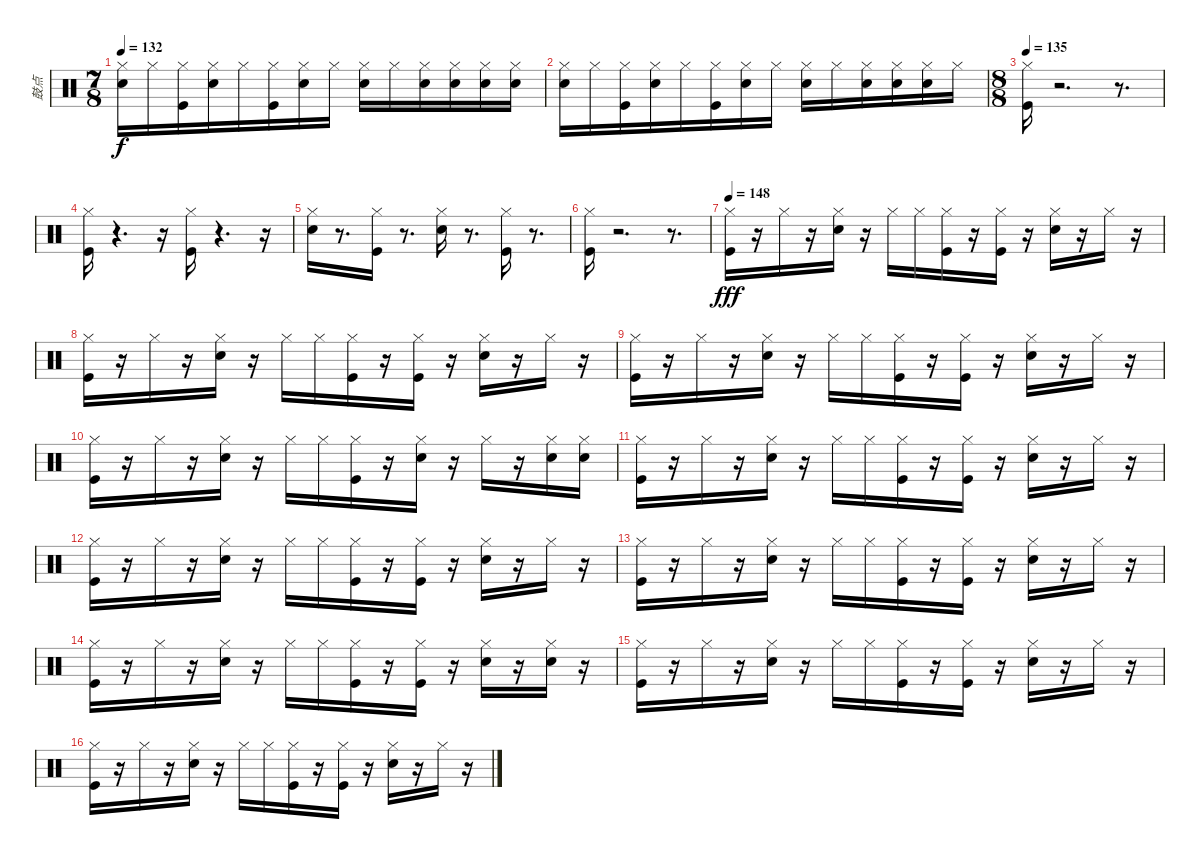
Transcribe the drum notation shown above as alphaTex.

\track ("鼓点" "鼓点") {instrument percussion}
\staff {score}
\articulation defaults
\ts (7 8)
\tempo 132
\clef neutral
\ks c
("Snare (hit) 2" "Hi-Hat (closed)").16{dy f} "Hi-Hat (closed)".16 ("Kick (hit)" "Hi-Hat (closed)").16 ("Snare (hit) 2" "Hi-Hat (closed)").16 "Hi-Hat (closed)".16 ("Kick (hit)" "Hi-Hat (closed)").16 ("Snare (hit) 2" "Hi-Hat (closed)").16 "Hi-Hat (closed)".16 ("Snare (hit) 2" "Hi-Hat (closed)").16 "Hi-Hat (closed)".16 ("Snare (hit) 2" "Hi-Hat (closed)").16 ("Snare (hit) 2" "Hi-Hat (closed)").16 ("Snare (hit) 2" "Hi-Hat (closed)").16 ("Snare (hit) 2" "Hi-Hat (closed)").16 |
("Snare (hit) 2" "Hi-Hat (closed)").16 "Hi-Hat (closed)".16 ("Kick (hit)" "Hi-Hat (closed)").16 ("Snare (hit) 2" "Hi-Hat (closed)").16 "Hi-Hat (closed)".16 ("Kick (hit)" "Hi-Hat (closed)").16 ("Snare (hit) 2" "Hi-Hat (closed)").16 "Hi-Hat (closed)".16 ("Snare (hit) 2" "Hi-Hat (closed)").16 "Hi-Hat (closed)".16 ("Snare (hit) 2" "Hi-Hat (closed)").16 ("Snare (hit) 2" "Hi-Hat (closed)").16 ("Snare (hit) 2" "Hi-Hat (closed)").16 "Hi-Hat (closed)".16 |
\ts (8 8)
\tempo 135
("Hi-Hat (closed)" "Kick (hit)").16 r.2{d} r.8{d} |
("Hi-Hat (closed)" "Kick (hit)").16 r.4{d} r.16 ("Hi-Hat (closed)" "Kick (hit)").16 r.4{d} r.16 |
("Hi-Hat (closed)" "Snare (hit) 2").16 r.8{d} ("Hi-Hat (closed)" "Kick (hit)").16 r.8{d} ("Hi-Hat (closed)" "Snare (hit) 2").16 r.8{d} ("Hi-Hat (closed)" "Kick (hit)").16 r.8{d} |
("Hi-Hat (closed)" "Kick (hit)").16 r.2{d} r.8{d} |
\tempo 148
("Kick (hit)" "Hi-Hat (closed)").16{dy fff} r.16 "Hi-Hat (closed)".16 r.16 ("Snare (hit) 2" "Hi-Hat (closed)").16 r.16 "Hi-Hat (closed)".16 "Hi-Hat (closed)".16 ("Kick (hit)" "Hi-Hat (closed)").16 r.16 ("Kick (hit)" "Hi-Hat (closed)").16 r.16 ("Snare (hit) 2" "Hi-Hat (closed)").16 r.16 "Hi-Hat (closed)".16 r.16 |
("Kick (hit)" "Hi-Hat (closed)").16 r.16 "Hi-Hat (closed)".16 r.16 ("Snare (hit) 2" "Hi-Hat (closed)").16 r.16 "Hi-Hat (closed)".16 "Hi-Hat (closed)".16 ("Kick (hit)" "Hi-Hat (closed)").16 r.16 ("Kick (hit)" "Hi-Hat (closed)").16 r.16 ("Snare (hit) 2" "Hi-Hat (closed)").16 r.16 "Hi-Hat (closed)".16 r.16 |
("Kick (hit)" "Hi-Hat (closed)").16 r.16 "Hi-Hat (closed)".16 r.16 ("Snare (hit) 2" "Hi-Hat (closed)").16 r.16 "Hi-Hat (closed)".16 "Hi-Hat (closed)".16 ("Kick (hit)" "Hi-Hat (closed)").16 r.16 ("Kick (hit)" "Hi-Hat (closed)").16 r.16 ("Snare (hit) 2" "Hi-Hat (closed)").16 r.16 "Hi-Hat (closed)".16 r.16 |
("Kick (hit)" "Hi-Hat (closed)").16 r.16 "Hi-Hat (closed)".16 r.16 ("Snare (hit) 2" "Hi-Hat (closed)").16 r.16 "Hi-Hat (closed)".16 "Hi-Hat (closed)".16 ("Kick (hit)" "Hi-Hat (closed)").16 r.16 ("Snare (hit) 2" "Hi-Hat (closed)").16 r.16 "Hi-Hat (closed)".16 r.16 ("Snare (hit) 2" "Hi-Hat (closed)").16 ("Snare (hit) 2" "Hi-Hat (closed)").16 |
("Kick (hit)" "Hi-Hat (closed)").16 r.16 "Hi-Hat (closed)".16 r.16 ("Snare (hit) 2" "Hi-Hat (closed)").16 r.16 "Hi-Hat (closed)".16 "Hi-Hat (closed)".16 ("Kick (hit)" "Hi-Hat (closed)").16 r.16 ("Kick (hit)" "Hi-Hat (closed)").16 r.16 ("Snare (hit) 2" "Hi-Hat (closed)").16 r.16 "Hi-Hat (closed)".16 r.16 |
("Kick (hit)" "Hi-Hat (closed)").16 r.16 "Hi-Hat (closed)".16 r.16 ("Snare (hit) 2" "Hi-Hat (closed)").16 r.16 "Hi-Hat (closed)".16 "Hi-Hat (closed)".16 ("Kick (hit)" "Hi-Hat (closed)").16 r.16 ("Kick (hit)" "Hi-Hat (closed)").16 r.16 ("Snare (hit) 2" "Hi-Hat (closed)").16 r.16 "Hi-Hat (closed)".16 r.16 |
("Kick (hit)" "Hi-Hat (closed)").16 r.16 "Hi-Hat (closed)".16 r.16 ("Snare (hit) 2" "Hi-Hat (closed)").16 r.16 "Hi-Hat (closed)".16 "Hi-Hat (closed)".16 ("Kick (hit)" "Hi-Hat (closed)").16 r.16 ("Kick (hit)" "Hi-Hat (closed)").16 r.16 ("Snare (hit) 2" "Hi-Hat (closed)").16 r.16 "Hi-Hat (closed)".16 r.16 |
("Kick (hit)" "Hi-Hat (closed)").16 r.16 "Hi-Hat (closed)".16 r.16 ("Snare (hit) 2" "Hi-Hat (closed)").16 r.16 "Hi-Hat (closed)".16 "Hi-Hat (closed)".16 ("Kick (hit)" "Hi-Hat (closed)").16 r.16 ("Kick (hit)" "Hi-Hat (closed)").16 r.16 ("Snare (hit) 2" "Hi-Hat (closed)").16 r.16 ("Snare (hit) 2" "Hi-Hat (closed)").16 r.16 |
("Kick (hit)" "Hi-Hat (closed)").16 r.16 "Hi-Hat (closed)".16 r.16 ("Snare (hit) 2" "Hi-Hat (closed)").16 r.16 "Hi-Hat (closed)".16 "Hi-Hat (closed)".16 ("Kick (hit)" "Hi-Hat (closed)").16 r.16 ("Kick (hit)" "Hi-Hat (closed)").16 r.16 ("Snare (hit) 2" "Hi-Hat (closed)").16 r.16 "Hi-Hat (closed)".16 r.16 |
("Kick (hit)" "Hi-Hat (closed)").16 r.16 "Hi-Hat (closed)".16 r.16 ("Snare (hit) 2" "Hi-Hat (closed)").16 r.16 "Hi-Hat (closed)".16 "Hi-Hat (closed)".16 ("Kick (hit)" "Hi-Hat (closed)").16 r.16 ("Kick (hit)" "Hi-Hat (closed)").16 r.16 ("Snare (hit) 2" "Hi-Hat (closed)").16 r.16 "Hi-Hat (closed)".16 r.16
